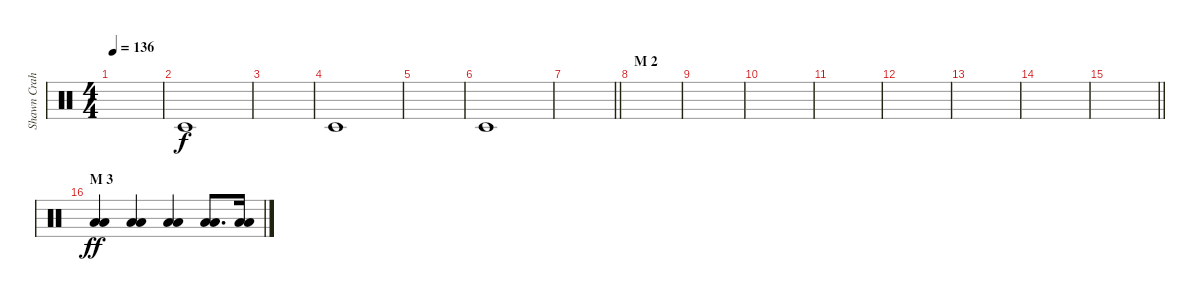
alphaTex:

\track ("Shawn Crahan" "Shawn Crah") {instrument percussion}
\staff {score}
\articulation defaults
\ts (4 4)
\tempo 136
\clef neutral
\ks c
|
"Timbale low (hit)".1 |
|
"Timbale low (hit)".1 |
|
"Timbale low (hit)".1 |
\barLineRight lightlight
|
\section ("" "M 2")
|
|
|
|
|
|
|
\barLineRight lightlight
|
\section ("" "M 3")
("Low Floor Tom (hit)" "Low Floor Tom (hit)").4{dy ff} ("Low Floor Tom (hit)" "Low Floor Tom (hit)").4 ("Low Floor Tom (hit)" "Low Floor Tom (hit)").4 ("Low Floor Tom (hit)" "Low Floor Tom (hit)").8{d} ("Low Floor Tom (hit)" "Low Floor Tom (hit)").16
